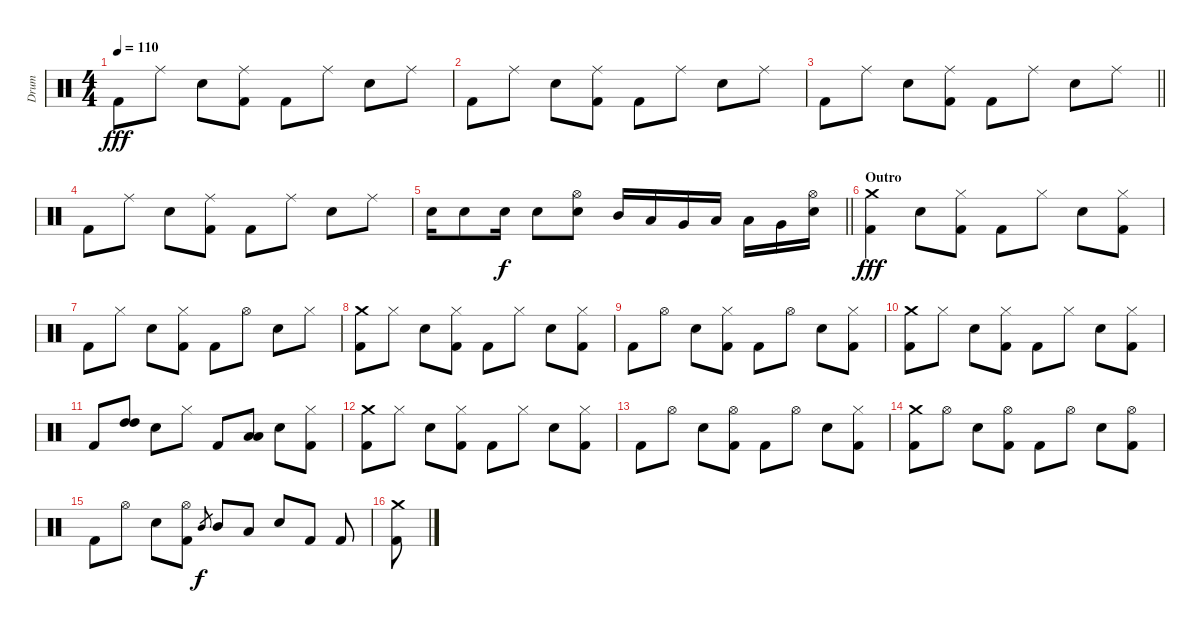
\track ("Drum" "Drum") {instrument percussion}
\staff {score}
\articulation defaults
\ts (4 4)
\tempo 110
\clef neutral
\ks c "Kick (hit) 2".8{dy fff} "Ride (middle)".8 "Electric Snare (hit)".8
("Ride (middle)" "Kick (hit) 2").8 "Kick (hit) 2".8 "Ride (middle)".8 "Electric Snare (hit)".8 "Ride (middle)".8 |
"Kick (hit) 2".8 "Ride (middle)".8 "Electric Snare (hit)".8 ("Ride (middle)" "Kick (hit) 2").8 "Kick (hit) 2".8 "Ride (middle)".8 "Electric Snare (hit)".8 "Ride (middle)".8 |
\barLineRight lightlight "Kick (hit) 2".8 "Ride (middle)".8 "Electric Snare (hit)".8
("Ride (middle)" "Kick (hit) 2").8 "Kick (hit) 2".8 "Ride (middle)".8 "Electric Snare (hit)".8 "Ride (middle)".8 |
"Kick (hit) 2".8 "Ride (middle)".8 "Electric Snare (hit)".8 ("Ride (middle)" "Kick (hit) 2").8 "Kick (hit) 2".8 "Ride (middle)".8 "Electric Snare (hit)".8 "Ride (middle)".8 |
\barLineRight lightlight "Electric Snare (hit)".16 "Electric Snare (hit)".8 "Electric Snare (hit)".16{dy f} "Electric Snare (hit)".8
("Hi-Hat (open)" "Electric Snare (hit)").8 "Mid Tom (hit)".16 "Low Tom (hit)".16 "Very Low Tom (hit)".16 "Low Tom (hit)".16 "Low Floor Tom (hit)".16 "Very Low Tom (hit)".16 ("Hi-Hat (open)" "Electric Snare (hit)").16 |
\section ("" "Outro")
("Crash medium (hit)" "Kick (hit) 2").4{dy fff} "Electric Snare (hit)".8 ("Hi-Hat (closed)" "Kick (hit) 2").8 "Kick (hit) 2".8 "Hi-Hat (closed)".8 "Electric Snare (hit)".8 ("Hi-Hat (closed)" "Kick (hit) 2").8 |
"Kick (hit) 2".8 "Hi-Hat (closed)".8 "Electric Snare (hit)".8 ("Hi-Hat (closed)" "Kick (hit) 2").8 "Kick (hit) 2".8 "Hi-Hat (open)".8 "Electric Snare (hit)".8 "Hi-Hat (closed)".8 |
("Crash medium (hit)" "Kick (hit) 2").8 "Hi-Hat (closed)".8 "Electric Snare (hit)".8 ("Hi-Hat (closed)" "Kick (hit) 2").8 "Kick (hit) 2".8 "Hi-Hat (closed)".8 "Electric Snare (hit)".8 ("Hi-Hat (closed)" "Kick (hit) 2").8 |
"Kick (hit) 2".8 "Hi-Hat (open)".8 "Electric Snare (hit)".8 ("Hi-Hat (closed)" "Kick (hit) 2").8 "Kick (hit) 2".8 "Hi-Hat (open)".8 "Electric Snare (hit)".8 ("Hi-Hat (closed)" "Kick (hit) 2").8 |
("Crash medium (hit)" "Kick (hit) 2").8 "Hi-Hat (closed)".8 "Electric Snare (hit)".8 ("Hi-Hat (closed)" "Kick (hit) 2").8 "Kick (hit) 2".8 "Hi-Hat (closed)".8 "Electric Snare (hit)".8 ("Hi-Hat (closed)" "Kick (hit) 2").8 |
"Kick (hit) 2".8 ("High Tom (hit)" "High Tom (hit)").8 "Electric Snare (hit)".8 "Hi-Hat (closed)".8 "Kick (hit) 2".8 ("Low Tom (hit)" "Low Tom (hit)").8 "Electric Snare (hit)".8 ("Hi-Hat (closed)" "Kick (hit) 2").8 |
("Crash medium (hit)" "Kick (hit) 2").8 "Hi-Hat (closed)".8 "Electric Snare (hit)".8 ("Hi-Hat (closed)" "Kick (hit) 2").8 "Kick (hit) 2".8 "Hi-Hat (closed)".8 "Electric Snare (hit)".8 ("Hi-Hat (closed)" "Kick (hit) 2").8 |
"Kick (hit) 2".8 "Hi-Hat (open)".8 "Electric Snare (hit)".8 ("Hi-Hat (open)" "Kick (hit) 2").8 "Kick (hit) 2".8 "Hi-Hat (open)".8 "Electric Snare (hit)".8 ("Hi-Hat (closed)" "Kick (hit) 2").8 |
("Crash medium (hit)" "Kick (hit) 2").8 "Hi-Hat (open)".8 "Electric Snare (hit)".8 ("Hi-Hat (open)" "Kick (hit) 2").8 "Kick (hit) 2".8 "Hi-Hat (open)".8 "Electric Snare (hit)".8 ("Hi-Hat (open)" "Kick (hit) 2").8 |
"Kick (hit) 2".8 "Hi-Hat (open)".8 "Electric Snare (hit)".8 ("Hi-Hat (open)" "Kick (hit) 2").8 "Mid Tom (hit)".8{gr dy f} "Mid Tom (hit)".8 "Low Tom (hit)".8 "Electric Snare (hit)".8 "Kick (hit) 2".8 "Kick (hit) 2".8 |
("Crash medium (hit)" "Kick (hit) 2").8
